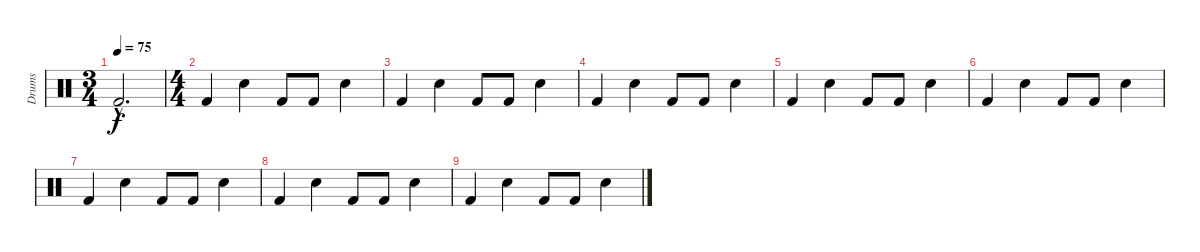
\track ("Drums" "Drums") {instrument percussion}
\staff {score}
\articulation defaults
\ts (3 4)
\tempo 75
\clef neutral
\ks c "Kick (hit) 2"{hac}.2{d dy f}
|
\ts (4 4)
"Kick (hit) 2".4 "Snare (hit) 2".4 "Kick (hit) 2".8 "Kick (hit) 2".8 "Snare (hit) 2".4 |
"Kick (hit) 2".4 "Snare (hit) 2".4 "Kick (hit) 2".8 "Kick (hit) 2".8 "Snare (hit) 2".4 |
"Kick (hit) 2".4 "Snare (hit) 2".4 "Kick (hit) 2".8 "Kick (hit) 2".8 "Snare (hit) 2".4 |
"Kick (hit) 2".4 "Snare (hit) 2".4 "Kick (hit) 2".8 "Kick (hit) 2".8 "Snare (hit) 2".4 |
"Kick (hit) 2".4 "Snare (hit) 2".4 "Kick (hit) 2".8 "Kick (hit) 2".8 "Snare (hit) 2".4 |
"Kick (hit) 2".4 "Snare (hit) 2".4 "Kick (hit) 2".8 "Kick (hit) 2".8 "Snare (hit) 2".4 |
"Kick (hit) 2".4 "Snare (hit) 2".4 "Kick (hit) 2".8 "Kick (hit) 2".8 "Snare (hit) 2".4 |
"Kick (hit) 2".4 "Snare (hit) 2".4 "Kick (hit) 2".8 "Kick (hit) 2".8 "Snare (hit) 2".4
